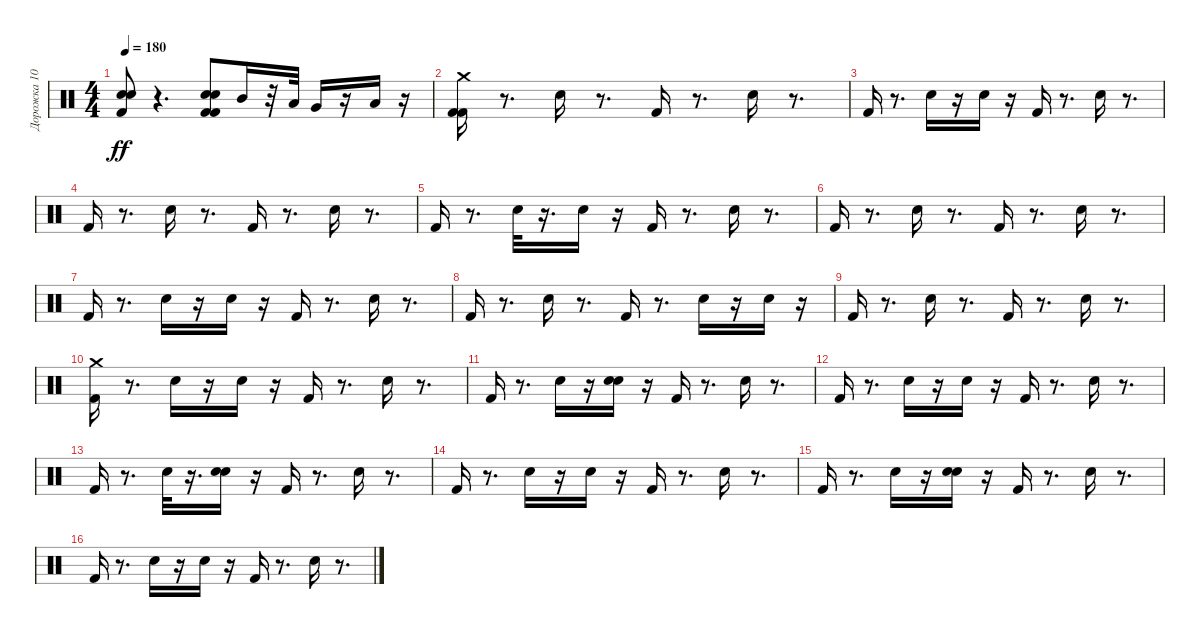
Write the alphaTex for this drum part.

\track ("Дорожка 10" "Дорожка 10") {instrument percussion}
\staff {score}
\articulation defaults
\ts (4 4)
\tempo 180
\clef neutral
\ks c
("Snare (hit)" "Snare (hit)" "Kick (hit) 2").8{dy ff} r.4{d} ("Snare (hit)" "Snare (hit)" "Kick (hit) 2" "Kick (hit) 2").8 "Mid Tom (hit)".16 r.32 "Low Tom (hit)".32 "Very Low Tom (hit)".16 r.16 "Low Floor Tom (hit)".16 r.16 |
("Kick (hit) 2" "Kick (hit) 2" "Crash medium (hit)").16 r.8{d} "Electric Snare (hit)".16 r.8{d} "Kick (hit) 2".16 r.8{d} "Electric Snare (hit)".16 r.8{d} |
"Kick (hit) 2".16 r.8{d} "Electric Snare (hit)".16 r.16 "Electric Snare (hit)".16 r.16 "Kick (hit) 2".16 r.8{d} "Electric Snare (hit)".16 r.8{d} |
"Kick (hit) 2".16 r.8{d} "Electric Snare (hit)".16 r.8{d} "Kick (hit) 2".16 r.8{d} "Electric Snare (hit)".16 r.8{d} |
"Kick (hit) 2".16 r.8{d} "Electric Snare (hit)".32 r.16{d} "Electric Snare (hit)".16 r.16 "Kick (hit) 2".16 r.8{d} "Electric Snare (hit)".16 r.8{d} |
"Kick (hit) 2".16 r.8{d} "Electric Snare (hit)".16 r.8{d} "Kick (hit) 2".16 r.8{d} "Electric Snare (hit)".16 r.8{d} |
"Kick (hit) 2".16 r.8{d} "Electric Snare (hit)".16 r.16 "Electric Snare (hit)".16 r.16 "Kick (hit) 2".16 r.8{d} "Electric Snare (hit)".16 r.8{d} |
"Kick (hit) 2".16 r.8{d} "Electric Snare (hit)".16 r.8{d} "Kick (hit) 2".16 r.8{d} "Electric Snare (hit)".16 r.16 "Electric Snare (hit)".16 r.16 |
"Kick (hit) 2".16 r.8{d} "Electric Snare (hit)".16 r.8{d} "Kick (hit) 2".16 r.8{d} "Electric Snare (hit)".16 r.8{d} |
("Crash medium (hit)" "Kick (hit) 2").16 r.8{d} "Electric Snare (hit)".16 r.16 "Electric Snare (hit)".16 r.16 "Kick (hit) 2".16 r.8{d} "Electric Snare (hit)".16 r.8{d} |
"Kick (hit) 2".16 r.8{d} "Electric Snare (hit)".16 r.16 ("Electric Snare (hit)" "Hand Clap (hit)").16 r.16 "Kick (hit) 2".16 r.8{d} "Electric Snare (hit)".16 r.8{d} |
"Kick (hit) 2".16 r.8{d} "Electric Snare (hit)".16 r.16 "Electric Snare (hit)".16 r.16 "Kick (hit) 2".16 r.8{d} "Electric Snare (hit)".16 r.8{d} |
"Kick (hit) 2".16 r.8{d} "Electric Snare (hit)".32 r.16{d} ("Electric Snare (hit)" "Hand Clap (hit)").16 r.16 "Kick (hit) 2".16 r.8{d} "Electric Snare (hit)".16 r.8{d} |
"Kick (hit) 2".16 r.8{d} "Electric Snare (hit)".16 r.16 "Electric Snare (hit)".16 r.16 "Kick (hit) 2".16 r.8{d} "Electric Snare (hit)".16 r.8{d} |
"Kick (hit) 2".16 r.8{d} "Electric Snare (hit)".16 r.16 ("Electric Snare (hit)" "Hand Clap (hit)").16 r.16 "Kick (hit) 2".16 r.8{d} "Electric Snare (hit)".16 r.8{d} |
"Kick (hit) 2".16 r.8{d} "Electric Snare (hit)".16 r.16 "Electric Snare (hit)".16 r.16 "Kick (hit) 2".16 r.8{d} "Electric Snare (hit)".16 r.8{d}
